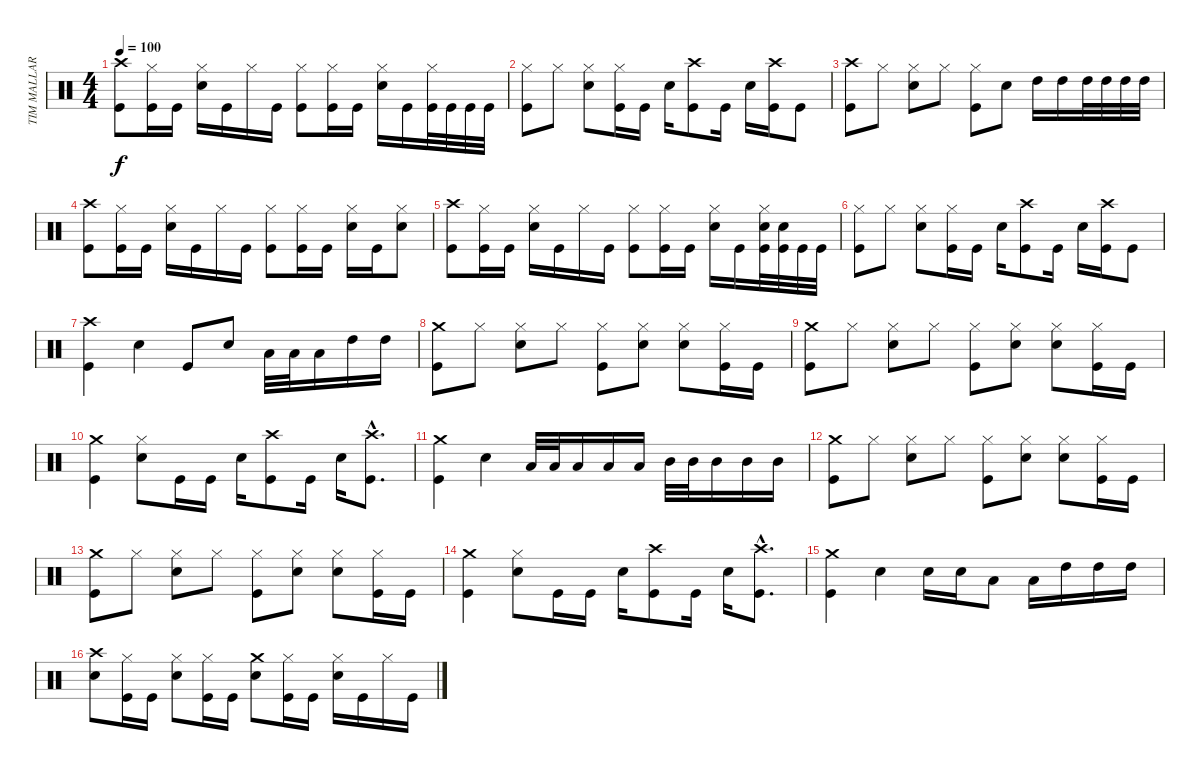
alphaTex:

\track ("TIM MALLARE - drums" "TIM MALLAR") {instrument percussion}
\staff {score}
\articulation defaults
\ts (4 4)
\tempo 100
\clef neutral
\ks c
("Crash high (hit)" "Kick (hit)").8{dy f} ("Hi-Hat (closed)" "Kick (hit)").16 "Kick (hit)".16 ("Hi-Hat (closed)" "Electric Snare (hit)").16 "Kick (hit)".16 "Hi-Hat (closed)".16 "Kick (hit)".16 ("Hi-Hat (closed)" "Kick (hit)").8 ("Hi-Hat (closed)" "Kick (hit)").16 "Kick (hit)".16 ("Hi-Hat (closed)" "Electric Snare (hit)").16 "Kick (hit)".16 ("Hi-Hat (closed)" "Kick (hit)").32 "Kick (hit)".32 "Kick (hit)".32 "Kick (hit)".32 |
("Hi-Hat (closed)" "Kick (hit)").8 "Hi-Hat (closed)".8 ("Hi-Hat (closed)" "Electric Snare (hit)").8 ("Hi-Hat (closed)" "Kick (hit)").16 "Kick (hit)".16 "Electric Snare (hit)".16 ("Crash high (hit)" "Kick (hit)").8 "Kick (hit)".16 "Electric Snare (hit)".16 ("Crash high (hit)" "Kick (hit)").16 "Kick (hit)".8 |
("Crash high (hit)" "Kick (hit)").8 "Hi-Hat (closed)".8 ("Hi-Hat (closed)" "Electric Snare (hit)").8 "Hi-Hat (closed)".8 ("Hi-Hat (closed)" "Kick (hit)").8 "Electric Snare (hit)".8 "High Tom (hit)".16 "High Tom (hit)".16 "High Tom (hit)".32 "High Tom (hit)".32 "High Tom (hit)".32 "High Tom (hit)".32 |
("Crash high (hit)" "Kick (hit)").8 ("Hi-Hat (closed)" "Kick (hit)").16 "Kick (hit)".16 ("Hi-Hat (closed)" "Electric Snare (hit)").16 "Kick (hit)".16 "Hi-Hat (closed)".16 "Kick (hit)".16 ("Hi-Hat (closed)" "Kick (hit)").8 ("Hi-Hat (closed)" "Kick (hit)").16 "Kick (hit)".16 ("Hi-Hat (closed)" "Electric Snare (hit)").16 "Kick (hit)".16 ("Hi-Hat (closed)" "Electric Snare (hit)").8 |
("Crash high (hit)" "Kick (hit)").8 ("Hi-Hat (closed)" "Kick (hit)").16 "Kick (hit)".16 ("Hi-Hat (closed)" "Electric Snare (hit)").16 "Kick (hit)".16 "Hi-Hat (closed)".16 "Kick (hit)".16 ("Hi-Hat (closed)" "Kick (hit)").8 ("Hi-Hat (closed)" "Kick (hit)").16 "Kick (hit)".16 ("Hi-Hat (closed)" "Electric Snare (hit)").16 "Kick (hit)".16 ("Hi-Hat (closed)" "Electric Snare (hit)" "Kick (hit)").32 ("Electric Snare (hit)" "Kick (hit)").32 "Kick (hit)".32 "Kick (hit)".32 |
("Hi-Hat (closed)" "Kick (hit)").8 "Hi-Hat (closed)".8 ("Hi-Hat (closed)" "Electric Snare (hit)").8 ("Hi-Hat (closed)" "Kick (hit)").16 "Kick (hit)".16 "Electric Snare (hit)".16 ("Crash high (hit)" "Kick (hit)").8 "Kick (hit)".16 "Electric Snare (hit)".16 ("Crash high (hit)" "Kick (hit)").16 "Kick (hit)".8 |
("Crash high (hit)" "Kick (hit)").4 "Electric Snare (hit)".4 "Kick (hit)".8 "Electric Snare (hit)".8 "Low Tom (hit)".32 "Low Tom (hit)".32 "Low Tom (hit)".16 "High Tom (hit)".16 "High Tom (hit)".16 |
("Crash medium (hit)" "Kick (hit)").8 "Hi-Hat (closed)".8 ("Hi-Hat (closed)" "Electric Snare (hit)").8 "Hi-Hat (closed)".8 ("Hi-Hat (closed)" "Kick (hit)").8 ("Hi-Hat (closed)" "Electric Snare (hit)").8 ("Hi-Hat (closed)" "Electric Snare (hit)").8 ("Hi-Hat (closed)" "Kick (hit)").16 "Kick (hit)".16 |
("Crash medium (hit)" "Kick (hit)").8 "Hi-Hat (closed)".8 ("Hi-Hat (closed)" "Electric Snare (hit)").8 "Hi-Hat (closed)".8 ("Hi-Hat (closed)" "Kick (hit)").8 ("Hi-Hat (closed)" "Electric Snare (hit)").8 ("Hi-Hat (closed)" "Electric Snare (hit)").8 ("Hi-Hat (closed)" "Kick (hit)").16 "Kick (hit)".16 |
("Crash medium (hit)" "Kick (hit)").4 ("Hi-Hat (closed)" "Electric Snare (hit)").8 "Kick (hit)".16 "Kick (hit)".16 "Electric Snare (hit)".16 ("Crash high (hit)" "Kick (hit)").8 "Kick (hit)".16 "Electric Snare (hit)".16 ("Crash high (hit)"{hac} "Kick (hit)"{hac}).8{d} |
("Crash medium (hit)" "Kick (hit)").4 "Electric Snare (hit)".4 "Low Tom (hit)".32 "Low Tom (hit)".32 "Low Tom (hit)".16 "Low Tom (hit)".16 "Low Tom (hit)".16 "Mid Tom (hit)".32 "Mid Tom (hit)".32 "Mid Tom (hit)".16 "Mid Tom (hit)".16 "Mid Tom (hit)".16 |
("Crash medium (hit)" "Kick (hit)").8 "Hi-Hat (closed)".8 ("Hi-Hat (closed)" "Electric Snare (hit)").8 "Hi-Hat (closed)".8 ("Hi-Hat (closed)" "Kick (hit)").8 ("Hi-Hat (closed)" "Electric Snare (hit)").8 ("Hi-Hat (closed)" "Electric Snare (hit)").8 ("Hi-Hat (closed)" "Kick (hit)").16 "Kick (hit)".16 |
("Crash medium (hit)" "Kick (hit)").8 "Hi-Hat (closed)".8 ("Hi-Hat (closed)" "Electric Snare (hit)").8 "Hi-Hat (closed)".8 ("Hi-Hat (closed)" "Kick (hit)").8 ("Hi-Hat (closed)" "Electric Snare (hit)").8 ("Hi-Hat (closed)" "Electric Snare (hit)").8 ("Hi-Hat (closed)" "Kick (hit)").16 "Kick (hit)".16 |
("Crash medium (hit)" "Kick (hit)").4 ("Hi-Hat (closed)" "Electric Snare (hit)").8 "Kick (hit)".16 "Kick (hit)".16 "Electric Snare (hit)".16 ("Crash high (hit)" "Kick (hit)").8 "Kick (hit)".16 "Electric Snare (hit)".16 ("Crash high (hit)"{hac} "Kick (hit)"{hac}).8{d} |
("Crash medium (hit)" "Kick (hit)").4 "Electric Snare (hit)".4 "Electric Snare (hit)".16 "Electric Snare (hit)".16 "Low Tom (hit)".8 "Low Tom (hit)".16 "High Tom (hit)".16 "High Tom (hit)".16 "High Tom (hit)".16 |
("Crash high (hit)" "Electric Snare (hit)").8 ("Hi-Hat (closed)" "Kick (hit)").16 "Kick (hit)".16 ("Hi-Hat (closed)" "Electric Snare (hit)").8 ("Hi-Hat (closed)" "Kick (hit)").16 "Kick (hit)".16 ("Crash medium (hit)" "Electric Snare (hit)").8 ("Hi-Hat (closed)" "Kick (hit)").16 "Kick (hit)".16 ("Hi-Hat (closed)" "Electric Snare (hit)").16 "Kick (hit)".16 "Hi-Hat (closed)".16 "Kick (hit)".16
